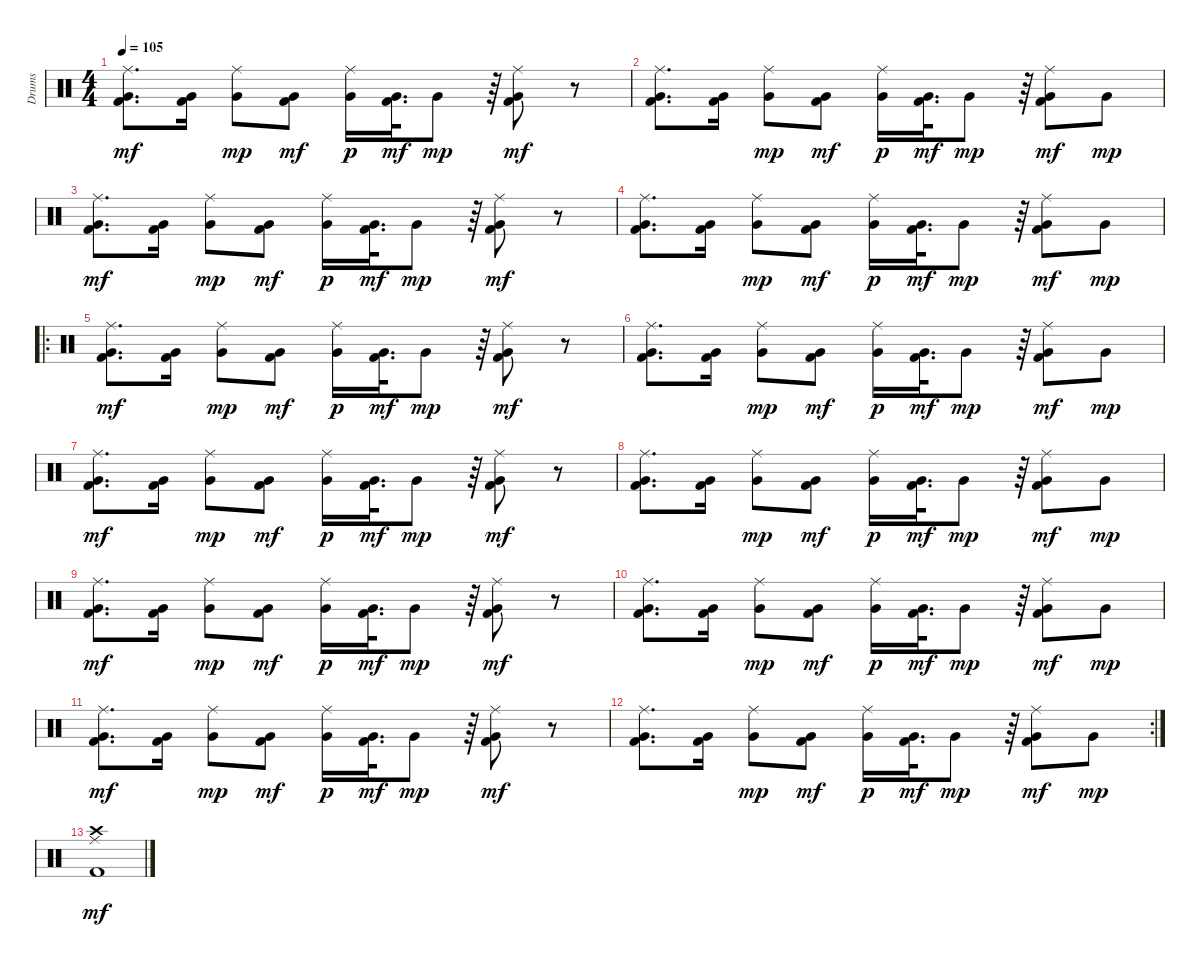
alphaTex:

\track ("Drums" "Drums") {instrument percussion}
\staff {score}
\articulation defaults
\ts (4 4)
\tempo 105
\clef neutral
\ks c
("Ride (middle)" "Very Low Tom (hit)" "Kick (hit) 2").8{d dy mf} ("Very Low Tom (hit)" "Kick (hit) 2").16 ("Ride (middle)" "Very Low Tom (hit)").8{dy mp} ("Very Low Tom (hit)" "Kick (hit) 2").8{dy mf} ("Ride (middle)" "Very Low Tom (hit)").16{dy p} ("Very Low Tom (hit)" "Kick (hit) 2").32{d dy mf} "Very Low Tom (hit)".8{dy mp} r.64 ("Ride (middle)" "Very Low Tom (hit)" "Kick (hit) 2").8{dy mf} r.8 |
("Ride (middle)" "Very Low Tom (hit)" "Kick (hit) 2").8{d} ("Very Low Tom (hit)" "Kick (hit) 2").16 ("Ride (middle)" "Very Low Tom (hit)").8{dy mp} ("Very Low Tom (hit)" "Kick (hit) 2").8{dy mf} ("Ride (middle)" "Very Low Tom (hit)").16{dy p} ("Very Low Tom (hit)" "Kick (hit) 2").32{d dy mf} "Very Low Tom (hit)".8{dy mp} r.64 ("Ride (middle)" "Very Low Tom (hit)" "Kick (hit) 2").8{dy mf} "Very Low Tom (hit)".8{dy mp} |
("Ride (middle)" "Very Low Tom (hit)" "Kick (hit) 2").8{d dy mf} ("Very Low Tom (hit)" "Kick (hit) 2").16 ("Ride (middle)" "Very Low Tom (hit)").8{dy mp} ("Very Low Tom (hit)" "Kick (hit) 2").8{dy mf} ("Ride (middle)" "Very Low Tom (hit)").16{dy p} ("Very Low Tom (hit)" "Kick (hit) 2").32{d dy mf} "Very Low Tom (hit)".8{dy mp} r.64 ("Ride (middle)" "Very Low Tom (hit)" "Kick (hit) 2").8{dy mf} r.8 |
("Ride (middle)" "Very Low Tom (hit)" "Kick (hit) 2").8{d} ("Very Low Tom (hit)" "Kick (hit) 2").16 ("Ride (middle)" "Very Low Tom (hit)").8{dy mp} ("Very Low Tom (hit)" "Kick (hit) 2").8{dy mf} ("Ride (middle)" "Very Low Tom (hit)").16{dy p} ("Very Low Tom (hit)" "Kick (hit) 2").32{d dy mf} "Very Low Tom (hit)".8{dy mp} r.64 ("Ride (middle)" "Very Low Tom (hit)" "Kick (hit) 2").8{dy mf} "Very Low Tom (hit)".8{dy mp} |
\ro
("Ride (middle)" "Very Low Tom (hit)" "Kick (hit) 2").8{d dy mf} ("Very Low Tom (hit)" "Kick (hit) 2").16 ("Ride (middle)" "Very Low Tom (hit)").8{dy mp} ("Very Low Tom (hit)" "Kick (hit) 2").8{dy mf} ("Ride (middle)" "Very Low Tom (hit)").16{dy p} ("Very Low Tom (hit)" "Kick (hit) 2").32{d dy mf} "Very Low Tom (hit)".8{dy mp} r.64 ("Ride (middle)" "Very Low Tom (hit)" "Kick (hit) 2").8{dy mf} r.8 |
("Ride (middle)" "Very Low Tom (hit)" "Kick (hit) 2").8{d} ("Very Low Tom (hit)" "Kick (hit) 2").16 ("Ride (middle)" "Very Low Tom (hit)").8{dy mp} ("Very Low Tom (hit)" "Kick (hit) 2").8{dy mf} ("Ride (middle)" "Very Low Tom (hit)").16{dy p} ("Very Low Tom (hit)" "Kick (hit) 2").32{d dy mf} "Very Low Tom (hit)".8{dy mp} r.64 ("Ride (middle)" "Very Low Tom (hit)" "Kick (hit) 2").8{dy mf} "Very Low Tom (hit)".8{dy mp} |
("Ride (middle)" "Very Low Tom (hit)" "Kick (hit) 2").8{d dy mf} ("Very Low Tom (hit)" "Kick (hit) 2").16 ("Ride (middle)" "Very Low Tom (hit)").8{dy mp} ("Very Low Tom (hit)" "Kick (hit) 2").8{dy mf} ("Ride (middle)" "Very Low Tom (hit)").16{dy p} ("Very Low Tom (hit)" "Kick (hit) 2").32{d dy mf} "Very Low Tom (hit)".8{dy mp} r.64 ("Ride (middle)" "Very Low Tom (hit)" "Kick (hit) 2").8{dy mf} r.8 |
("Ride (middle)" "Very Low Tom (hit)" "Kick (hit) 2").8{d} ("Very Low Tom (hit)" "Kick (hit) 2").16 ("Ride (middle)" "Very Low Tom (hit)").8{dy mp} ("Very Low Tom (hit)" "Kick (hit) 2").8{dy mf} ("Ride (middle)" "Very Low Tom (hit)").16{dy p} ("Very Low Tom (hit)" "Kick (hit) 2").32{d dy mf} "Very Low Tom (hit)".8{dy mp} r.64 ("Ride (middle)" "Very Low Tom (hit)" "Kick (hit) 2").8{dy mf} "Very Low Tom (hit)".8{dy mp} |
("Ride (middle)" "Very Low Tom (hit)" "Kick (hit) 2").8{d dy mf} ("Very Low Tom (hit)" "Kick (hit) 2").16 ("Ride (middle)" "Very Low Tom (hit)").8{dy mp} ("Very Low Tom (hit)" "Kick (hit) 2").8{dy mf} ("Ride (middle)" "Very Low Tom (hit)").16{dy p} ("Very Low Tom (hit)" "Kick (hit) 2").32{d dy mf} "Very Low Tom (hit)".8{dy mp} r.64 ("Ride (middle)" "Very Low Tom (hit)" "Kick (hit) 2").8{dy mf} r.8 |
("Ride (middle)" "Very Low Tom (hit)" "Kick (hit) 2").8{d} ("Very Low Tom (hit)" "Kick (hit) 2").16 ("Ride (middle)" "Very Low Tom (hit)").8{dy mp} ("Very Low Tom (hit)" "Kick (hit) 2").8{dy mf} ("Ride (middle)" "Very Low Tom (hit)").16{dy p} ("Very Low Tom (hit)" "Kick (hit) 2").32{d dy mf} "Very Low Tom (hit)".8{dy mp} r.64 ("Ride (middle)" "Very Low Tom (hit)" "Kick (hit) 2").8{dy mf} "Very Low Tom (hit)".8{dy mp} |
("Ride (middle)" "Very Low Tom (hit)" "Kick (hit) 2").8{d dy mf} ("Very Low Tom (hit)" "Kick (hit) 2").16 ("Ride (middle)" "Very Low Tom (hit)").8{dy mp} ("Very Low Tom (hit)" "Kick (hit) 2").8{dy mf} ("Ride (middle)" "Very Low Tom (hit)").16{dy p} ("Very Low Tom (hit)" "Kick (hit) 2").32{d dy mf} "Very Low Tom (hit)".8{dy mp} r.64 ("Ride (middle)" "Very Low Tom (hit)" "Kick (hit) 2").8{dy mf} r.8 |
\rc 2
("Ride (middle)" "Very Low Tom (hit)" "Kick (hit) 2").8{d} ("Very Low Tom (hit)" "Kick (hit) 2").16 ("Ride (middle)" "Very Low Tom (hit)").8{dy mp} ("Very Low Tom (hit)" "Kick (hit) 2").8{dy mf} ("Ride (middle)" "Very Low Tom (hit)").16{dy p} ("Very Low Tom (hit)" "Kick (hit) 2").32{d dy mf} "Very Low Tom (hit)".8{dy mp} r.64 ("Ride (middle)" "Very Low Tom (hit)" "Kick (hit) 2").8{dy mf} "Very Low Tom (hit)".8{dy mp} |
("Crash high (hit)" "Ride (middle)" "Kick (hit) 2").1{dy mf}
